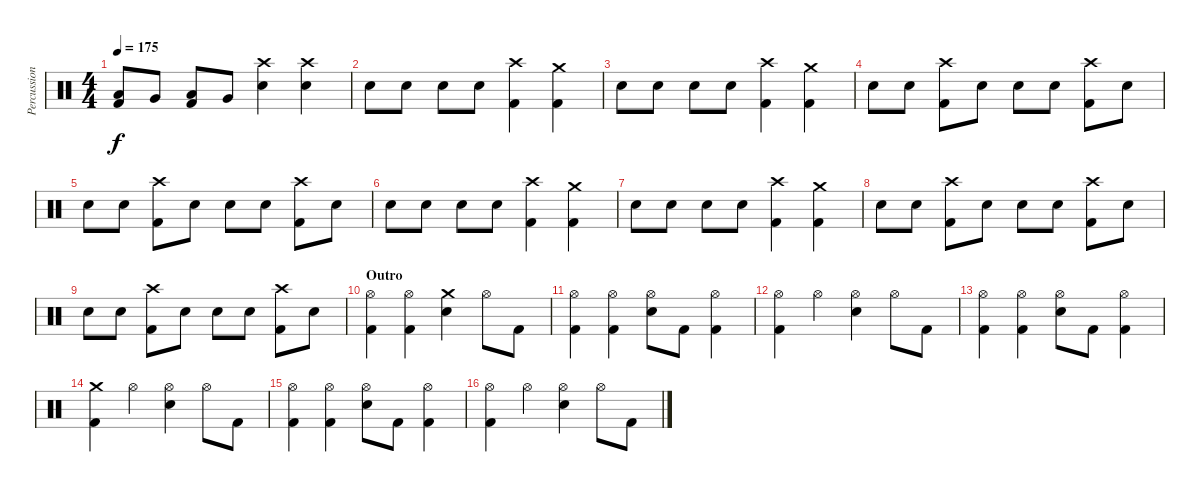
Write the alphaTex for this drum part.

\track ("Percussion" "Percussion") {instrument percussion}
\staff {score}
\articulation defaults
\ts (4 4)
\tempo 175
\clef neutral
\ks c
("Low Floor Tom (hit)" "Kick (hit) 2").8{dy f} "Very Low Tom (hit)".8 ("Low Floor Tom (hit)" "Kick (hit) 2").8 "Very Low Tom (hit)".8 ("Crash high (hit)" "Electric Snare (hit)").4 ("Crash high (hit)" "Electric Snare (hit)").4 |
"Electric Snare (hit)".8 "Electric Snare (hit)".8 "Electric Snare (hit)".8 "Electric Snare (hit)".8 ("Crash high (hit)" "Kick (hit) 2").4 ("Crash medium (hit)" "Kick (hit) 2").4 |
"Electric Snare (hit)".8 "Electric Snare (hit)".8 "Electric Snare (hit)".8 "Electric Snare (hit)".8 ("Crash high (hit)" "Kick (hit) 2").4 ("Crash medium (hit)" "Kick (hit) 2").4 |
"Electric Snare (hit)".8 "Electric Snare (hit)".8 ("Crash high (hit)" "Kick (hit) 2").8 "Electric Snare (hit)".8 "Electric Snare (hit)".8 "Electric Snare (hit)".8 ("Crash high (hit)" "Kick (hit) 2").8 "Electric Snare (hit)".8 |
"Electric Snare (hit)".8 "Electric Snare (hit)".8 ("Crash high (hit)" "Kick (hit) 2").8 "Electric Snare (hit)".8 "Electric Snare (hit)".8 "Electric Snare (hit)".8 ("Crash high (hit)" "Kick (hit) 2").8 "Electric Snare (hit)".8 |
"Electric Snare (hit)".8 "Electric Snare (hit)".8 "Electric Snare (hit)".8 "Electric Snare (hit)".8 ("Crash high (hit)" "Kick (hit) 2").4 ("Crash medium (hit)" "Kick (hit) 2").4 |
"Electric Snare (hit)".8 "Electric Snare (hit)".8 "Electric Snare (hit)".8 "Electric Snare (hit)".8 ("Crash high (hit)" "Kick (hit) 2").4 ("Crash medium (hit)" "Kick (hit) 2").4 |
"Electric Snare (hit)".8 "Electric Snare (hit)".8 ("Crash high (hit)" "Kick (hit) 2").8 "Electric Snare (hit)".8 "Electric Snare (hit)".8 "Electric Snare (hit)".8 ("Crash high (hit)" "Kick (hit) 2").8 "Electric Snare (hit)".8 |
"Electric Snare (hit)".8 "Electric Snare (hit)".8 ("Crash high (hit)" "Kick (hit) 2").8 "Electric Snare (hit)".8 "Electric Snare (hit)".8 "Electric Snare (hit)".8 ("Crash high (hit)" "Kick (hit) 2").8 "Electric Snare (hit)".8 |
\section ("" "Outro")
("Hi-Hat (open)" "Kick (hit) 2").4 ("Hi-Hat (open)" "Kick (hit) 2").4 ("Crash medium (hit)" "Electric Snare (hit)").4 "Hi-Hat (open)".8 "Kick (hit) 2".8 |
("Hi-Hat (open)" "Kick (hit) 2").4 ("Hi-Hat (open)" "Kick (hit) 2").4 ("Hi-Hat (open)" "Electric Snare (hit)").8 "Kick (hit) 2".8 ("Hi-Hat (open)" "Kick (hit) 2").4 |
("Hi-Hat (open)" "Kick (hit) 2").4 "Hi-Hat (open)".4 ("Hi-Hat (open)" "Electric Snare (hit)").4 "Hi-Hat (open)".8 "Kick (hit) 2".8 |
("Hi-Hat (open)" "Kick (hit) 2").4 ("Hi-Hat (open)" "Kick (hit) 2").4 ("Hi-Hat (open)" "Electric Snare (hit)").8 "Kick (hit) 2".8 ("Hi-Hat (open)" "Kick (hit) 2").4 |
("Crash medium (hit)" "Kick (hit) 2").4 "Hi-Hat (open)".4 ("Hi-Hat (open)" "Electric Snare (hit)").4 "Hi-Hat (open)".8 "Kick (hit) 2".8 |
("Hi-Hat (open)" "Kick (hit) 2").4 ("Hi-Hat (open)" "Kick (hit) 2").4 ("Hi-Hat (open)" "Electric Snare (hit)").8 "Kick (hit) 2".8 ("Hi-Hat (open)" "Kick (hit) 2").4 |
("Hi-Hat (open)" "Kick (hit) 2").4 "Hi-Hat (open)".4 ("Hi-Hat (open)" "Electric Snare (hit)").4 "Hi-Hat (open)".8 "Kick (hit) 2".8
